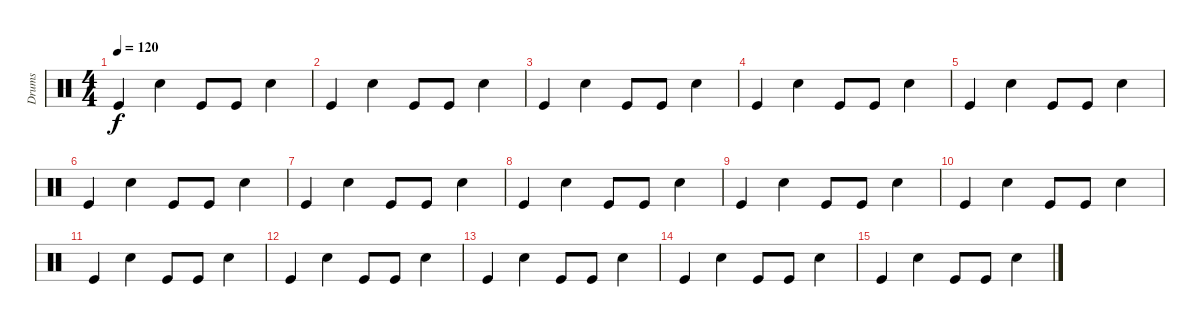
\track ("Drums" "Drums") {instrument percussion}
\staff {score}
\articulation defaults
\ts (4 4)
\tempo 120
\clef neutral
\ks c "Kick (hit)".4{dy f} "Snare (hit) 2".4 "Kick (hit)".8 "Kick (hit)".8 "Snare (hit) 2".4
|
"Kick (hit)".4 "Snare (hit) 2".4 "Kick (hit)".8 "Kick (hit)".8 "Snare (hit) 2".4 |
"Kick (hit)".4 "Snare (hit) 2".4 "Kick (hit)".8 "Kick (hit)".8 "Snare (hit) 2".4 |
"Kick (hit)".4 "Snare (hit) 2".4 "Kick (hit)".8 "Kick (hit)".8 "Snare (hit) 2".4 |
"Kick (hit)".4 "Snare (hit) 2".4 "Kick (hit)".8 "Kick (hit)".8 "Snare (hit) 2".4 |
"Kick (hit)".4 "Snare (hit) 2".4 "Kick (hit)".8 "Kick (hit)".8 "Snare (hit) 2".4 |
"Kick (hit)".4 "Snare (hit) 2".4 "Kick (hit)".8 "Kick (hit)".8 "Snare (hit) 2".4 |
"Kick (hit)".4 "Snare (hit) 2".4 "Kick (hit)".8 "Kick (hit)".8 "Snare (hit) 2".4 |
"Kick (hit)".4 "Snare (hit) 2".4 "Kick (hit)".8 "Kick (hit)".8 "Snare (hit) 2".4 |
"Kick (hit)".4 "Snare (hit) 2".4 "Kick (hit)".8 "Kick (hit)".8 "Snare (hit) 2".4 |
"Kick (hit)".4 "Snare (hit) 2".4 "Kick (hit)".8 "Kick (hit)".8 "Snare (hit) 2".4 |
"Kick (hit)".4 "Snare (hit) 2".4 "Kick (hit)".8 "Kick (hit)".8 "Snare (hit) 2".4 |
"Kick (hit)".4 "Snare (hit) 2".4 "Kick (hit)".8 "Kick (hit)".8 "Snare (hit) 2".4 |
"Kick (hit)".4 "Snare (hit) 2".4 "Kick (hit)".8 "Kick (hit)".8 "Snare (hit) 2".4 |
"Kick (hit)".4 "Snare (hit) 2".4 "Kick (hit)".8 "Kick (hit)".8 "Snare (hit) 2".4
